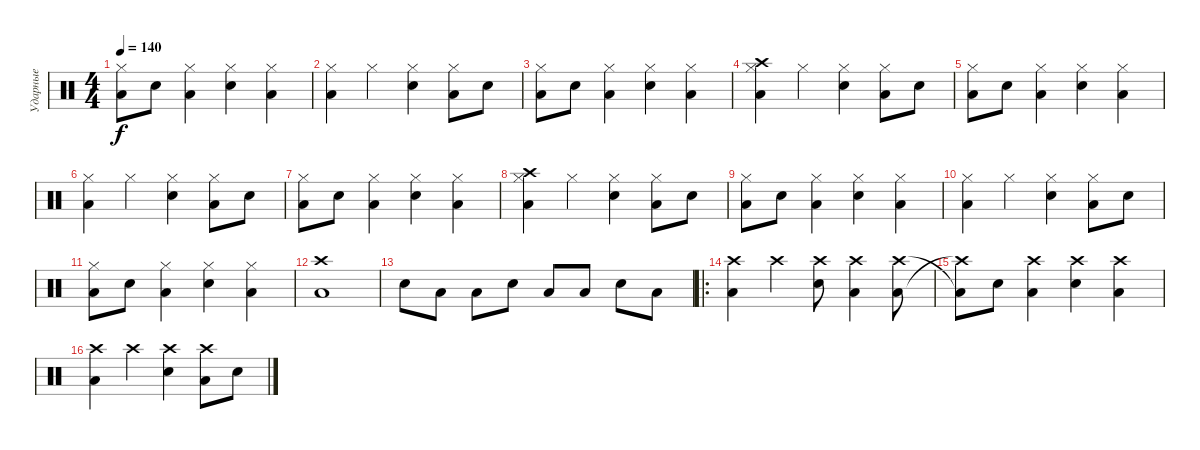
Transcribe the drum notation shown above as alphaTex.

\track ("Ударные" "Ударные") {instrument percussion}
\staff {score}
\articulation defaults
\ts (4 4)
\tempo 140
\clef neutral
\ks c
("Hi-Hat (closed)" "Low Floor Tom (hit)").8{dy f} "Electric Snare (hit)".8 ("Hi-Hat (closed)" "Low Floor Tom (hit)").4 ("Electric Snare (hit)" "Hi-Hat (closed)").4 ("Low Floor Tom (hit)" "Hi-Hat (closed)").4 |
("Hi-Hat (closed)" "Low Floor Tom (hit)").4 "Hi-Hat (closed)".4 ("Hi-Hat (closed)" "Electric Snare (hit)").4 ("Hi-Hat (closed)" "Low Floor Tom (hit)").8 "Electric Snare (hit)".8 |
("Hi-Hat (closed)" "Low Floor Tom (hit)").8 "Electric Snare (hit)".8 ("Hi-Hat (closed)" "Low Floor Tom (hit)").4 ("Electric Snare (hit)" "Hi-Hat (closed)").4 ("Low Floor Tom (hit)" "Hi-Hat (closed)").4 |
("Hi-Hat (closed)" "Crash high (hit)" "Low Floor Tom (hit)").4 "Hi-Hat (closed)".4 ("Hi-Hat (closed)" "Electric Snare (hit)").4 ("Hi-Hat (closed)" "Low Floor Tom (hit)").8 "Electric Snare (hit)".8 |
("Hi-Hat (closed)" "Low Floor Tom (hit)").8 "Electric Snare (hit)".8 ("Hi-Hat (closed)" "Low Floor Tom (hit)").4 ("Electric Snare (hit)" "Hi-Hat (closed)").4 ("Low Floor Tom (hit)" "Hi-Hat (closed)").4 |
("Hi-Hat (closed)" "Low Floor Tom (hit)").4 "Hi-Hat (closed)".4 ("Hi-Hat (closed)" "Electric Snare (hit)").4 ("Hi-Hat (closed)" "Low Floor Tom (hit)").8 "Electric Snare (hit)".8 |
("Hi-Hat (closed)" "Low Floor Tom (hit)").8 "Electric Snare (hit)".8 ("Hi-Hat (closed)" "Low Floor Tom (hit)").4 ("Electric Snare (hit)" "Hi-Hat (closed)").4 ("Low Floor Tom (hit)" "Hi-Hat (closed)").4 |
("Hi-Hat (closed)" "Crash high (hit)" "Low Floor Tom (hit)").4 "Hi-Hat (closed)".4 ("Hi-Hat (closed)" "Electric Snare (hit)").4 ("Hi-Hat (closed)" "Low Floor Tom (hit)").8 "Electric Snare (hit)".8 |
("Hi-Hat (closed)" "Low Floor Tom (hit)").8 "Electric Snare (hit)".8 ("Hi-Hat (closed)" "Low Floor Tom (hit)").4 ("Electric Snare (hit)" "Hi-Hat (closed)").4 ("Low Floor Tom (hit)" "Hi-Hat (closed)").4 |
("Hi-Hat (closed)" "Low Floor Tom (hit)").4 "Hi-Hat (closed)".4 ("Hi-Hat (closed)" "Electric Snare (hit)").4 ("Hi-Hat (closed)" "Low Floor Tom (hit)").8 "Electric Snare (hit)".8 |
("Hi-Hat (closed)" "Low Floor Tom (hit)").8 "Electric Snare (hit)".8 ("Hi-Hat (closed)" "Low Floor Tom (hit)").4 ("Electric Snare (hit)" "Hi-Hat (closed)").4 ("Low Floor Tom (hit)" "Hi-Hat (closed)").4 |
("Crash high (hit)" "Low Floor Tom (hit)").1 |
"Electric Snare (hit)".8 "Low Tom (hit)".8 "Low Tom (hit)".8 "Electric Snare (hit)".8 "Low Tom (hit)".8 "Low Tom (hit)".8 "Electric Snare (hit)".8 "Low Tom (hit)".8 |
\ro
("Crash high (hit)" "Low Floor Tom (hit)").4 "Crash high (hit)".4 ("Crash high (hit)" "Electric Snare (hit)").8 ("Crash high (hit)" "Low Floor Tom (hit)").4 ("Low Floor Tom (hit)" "Crash high (hit)").8 |
("Crash high (hit)"{t} "Low Floor Tom (hit)"{t}).8 "Electric Snare (hit)".8 ("Crash high (hit)" "Low Floor Tom (hit)").4 ("Crash high (hit)" "Electric Snare (hit)").4 ("Low Floor Tom (hit)" "Crash high (hit)").4 |
("Crash high (hit)" "Low Floor Tom (hit)").4 "Crash high (hit)".4 ("Crash high (hit)" "Electric Snare (hit)").4 ("Crash high (hit)" "Low Floor Tom (hit)").8 "Electric Snare (hit)".8
